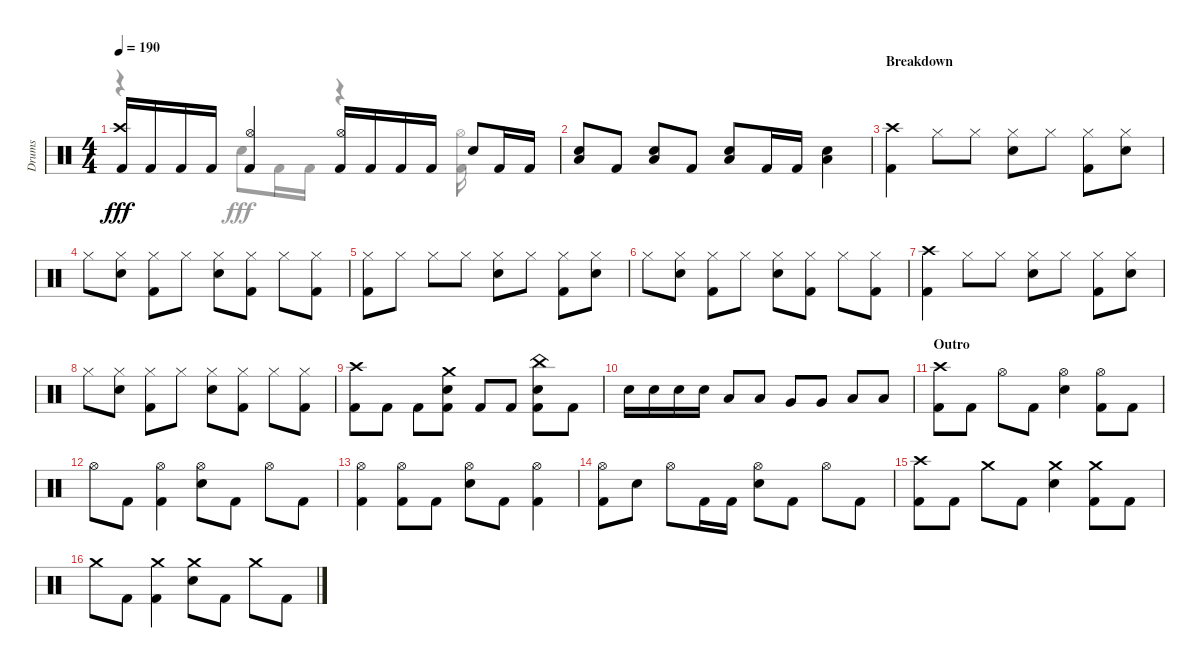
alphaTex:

\track ("Drums" "Drums") {instrument percussion}
\staff {score}
\articulation defaults
\voice
\ts (4 4)
\tempo 190
\clef neutral
\ks aminor
("Crash high (hit)" "Kick (hit) 2").16{dy fff} "Kick (hit) 2".16 "Kick (hit) 2".16 "Kick (hit) 2".16 ("Hi-Hat (open)" "Kick (hit) 2").4 ("Kick (hit) 2" "Hi-Hat (open)").16 "Kick (hit) 2".16 "Kick (hit) 2".16 "Kick (hit) 2".16 "Snare (hit) 2".8 "Kick (hit) 2".16 "Kick (hit) 2".16 |
("Snare (hit) 2" "Low Floor Tom (hit)").8 "Kick (hit) 2".8 ("Low Floor Tom (hit)" "Snare (hit) 2").8 "Kick (hit) 2".8 ("Low Floor Tom (hit)" "Snare (hit) 2").8 "Kick (hit) 2".16 "Kick (hit) 2".16 ("Snare (hit) 2" "Low Floor Tom (hit)").4 |
\section ("" "Breakdown")
("Crash high (hit)" "Kick (hit) 2").4 "Hi-Hat (closed)".8 "Hi-Hat (closed)".8 ("Hi-Hat (closed)" "Snare (hit) 2").8 "Hi-Hat (closed)".8 ("Hi-Hat (closed)" "Kick (hit) 2").8 ("Snare (hit) 2" "Hi-Hat (closed)").8 |
"Hi-Hat (closed)".8 ("Hi-Hat (closed)" "Snare (hit) 2").8 ("Kick (hit) 2" "Hi-Hat (closed)").8 "Hi-Hat (closed)".8 ("Hi-Hat (closed)" "Snare (hit) 2").8 ("Kick (hit) 2" "Hi-Hat (closed)").8 "Hi-Hat (closed)".8 ("Kick (hit) 2" "Hi-Hat (closed)").8 |
("Kick (hit) 2" "Hi-Hat (closed)").8 "Hi-Hat (closed)".8 "Hi-Hat (closed)".8 "Hi-Hat (closed)".8 ("Hi-Hat (closed)" "Snare (hit) 2").8 "Hi-Hat (closed)".8 ("Kick (hit) 2" "Hi-Hat (closed)").8 ("Hi-Hat (closed)" "Snare (hit) 2").8 |
"Hi-Hat (closed)".8 ("Hi-Hat (closed)" "Snare (hit) 2").8 ("Hi-Hat (closed)" "Kick (hit) 2").8 "Hi-Hat (closed)".8 ("Snare (hit) 2" "Hi-Hat (closed)").8 ("Kick (hit) 2" "Hi-Hat (closed)").8 "Hi-Hat (closed)".8 ("Kick (hit) 2" "Hi-Hat (closed)").8 |
("Crash high (hit)" "Kick (hit) 2").4 "Hi-Hat (closed)".8 "Hi-Hat (closed)".8 ("Snare (hit) 2" "Hi-Hat (closed)").8 "Hi-Hat (closed)".8 ("Hi-Hat (closed)" "Kick (hit) 2").8 ("Hi-Hat (closed)" "Snare (hit) 2").8 |
"Hi-Hat (closed)".8 ("Snare (hit) 2" "Hi-Hat (closed)").8 ("Hi-Hat (closed)" "Kick (hit) 2").8 "Hi-Hat (closed)".8 ("Hi-Hat (closed)" "Snare (hit) 2").8 ("Kick (hit) 2" "Hi-Hat (closed)").8 "Hi-Hat (closed)".8 ("Hi-Hat (closed)" "Kick (hit) 2").8 |
("Crash high (hit)" "Kick (hit) 2").8 "Kick (hit) 2".8 "Kick (hit) 2".8 ("Crash medium (hit)" "Snare (hit) 2" "Kick (hit) 2").8 "Kick (hit) 2".8 "Kick (hit) 2".8 ("Snare (hit) 2" "Kick (hit) 2" "China (hit)").8 "Kick (hit) 2".8 |
"Snare (hit) 2".16 "Snare (hit) 2".16 "Snare (hit) 2".16 "Snare (hit) 2".16 "Low Tom (hit)".8 "Low Tom (hit)".8 "Very Low Tom (hit)".8 "Very Low Tom (hit)".8 "Low Floor Tom (hit)".8 "Low Floor Tom (hit)".8 |
\section ("" "Outro")
("Crash high (hit)" "Kick (hit) 2").8 "Kick (hit) 2".8 "Hi-Hat (open)".8 "Kick (hit) 2".8 ("Snare (hit) 2" "Hi-Hat (open)").4 ("Hi-Hat (open)" "Kick (hit) 2").8 "Kick (hit) 2".8 |
"Hi-Hat (open)".8 "Kick (hit) 2".8 ("Hi-Hat (open)" "Kick (hit) 2").4 ("Hi-Hat (open)" "Snare (hit) 2").8 "Kick (hit) 2".8 "Hi-Hat (open)".8 "Kick (hit) 2".8 |
("Hi-Hat (open)" "Kick (hit) 2").4 ("Kick (hit) 2" "Hi-Hat (open)").8 "Kick (hit) 2".8 ("Hi-Hat (open)" "Snare (hit) 2").8 "Kick (hit) 2".8 ("Hi-Hat (open)" "Kick (hit) 2").4 |
("Hi-Hat (open)" "Kick (hit) 2").8 "Snare (hit) 2".8 "Hi-Hat (open)".8 "Kick (hit) 2".16 "Kick (hit) 2".16 ("Hi-Hat (open)" "Snare (hit) 2").8 "Kick (hit) 2".8 "Hi-Hat (open)".8 "Kick (hit) 2".8 |
("Kick (hit) 2" "Crash high (hit)").8 "Kick (hit) 2".8 "Crash medium (hit)".8 "Kick (hit) 2".8 ("Crash medium (hit)" "Snare (hit) 2").4 ("Kick (hit) 2" "Crash medium (hit)").8 "Kick (hit) 2".8 |
"Crash medium (hit)".8 "Kick (hit) 2".8 ("Kick (hit) 2" "Crash medium (hit)").4 ("Snare (hit) 2" "Crash medium (hit)").8 "Kick (hit) 2".8 "Crash medium (hit)".8 "Kick (hit) 2".8
\voice
\clef neutral
\ottava regular
\simile none
\ks aminor
r.4{dy fff} "Snare (hit) 2".8 "Kick (hit) 2".16 "Kick (hit) 2".16 r.4 ("Hi-Hat (open)" "Kick (hit) 2").16 |
|
|
|
|
|
|
|
|
|
|
|
|
|
|
